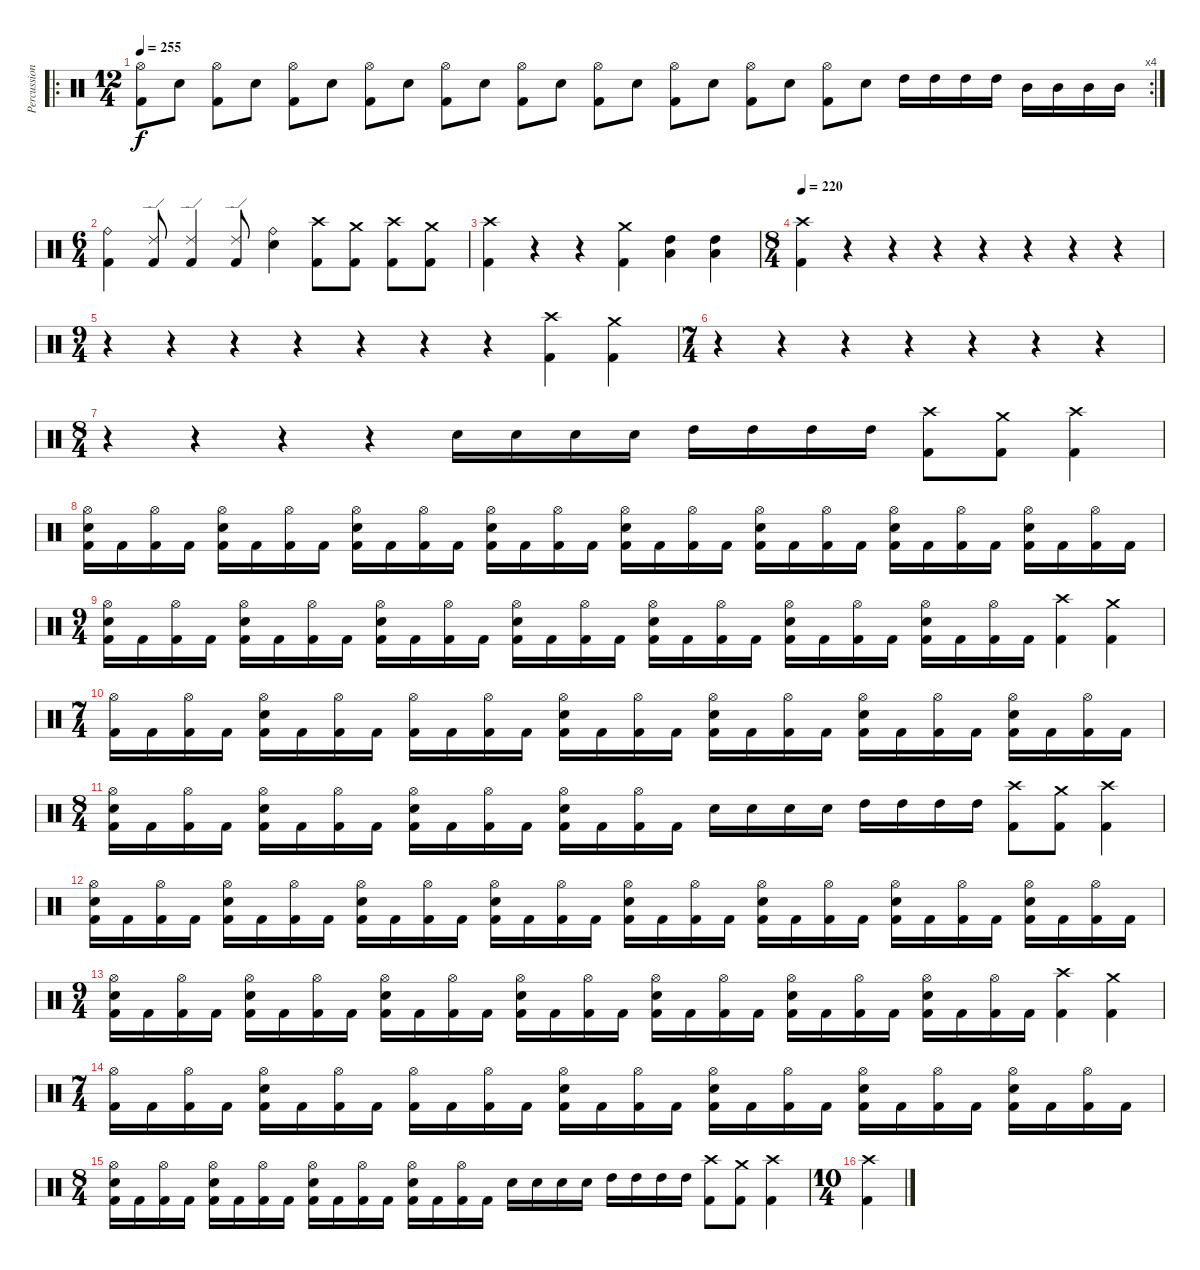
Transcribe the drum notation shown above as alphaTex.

\track ("Percussion" "Percussion") {mute instrument percussion}
\staff {score}
\articulation defaults
\ro
\rc 4
\ts (12 4)
\tempo 255
\clef neutral
\ks c
("Kick (hit) 2" "Hi-Hat (open)").8{dy f} "Electric Snare (hit)".8 ("Kick (hit) 2" "Hi-Hat (open)").8 "Electric Snare (hit)".8 ("Kick (hit) 2" "Hi-Hat (open)").8 "Electric Snare (hit)".8 ("Kick (hit) 2" "Hi-Hat (open)").8 "Electric Snare (hit)".8 ("Kick (hit) 2" "Hi-Hat (open)").8 "Electric Snare (hit)".8 ("Kick (hit) 2" "Hi-Hat (open)").8 "Electric Snare (hit)".8 ("Kick (hit) 2" "Hi-Hat (open)").8 "Electric Snare (hit)".8 ("Kick (hit) 2" "Hi-Hat (open)").8 "Electric Snare (hit)".8 ("Kick (hit) 2" "Hi-Hat (open)").8 "Electric Snare (hit)".8 ("Kick (hit) 2" "Hi-Hat (open)").8 "Electric Snare (hit)".8 "High Tom (hit)".16 "High Tom (hit)".16 "High Tom (hit)".16 "High Tom (hit)".16 "Mid Tom (hit)".16 "Mid Tom (hit)".16 "Mid Tom (hit)".16 "Mid Tom (hit)".16 |
\ts (6 4)
("Kick (hit) 2" "Ride (bell)").4 ("Kick (hit) 2" "Ride (edge) 2").8 ("Kick (hit) 2" "Ride (edge) 2").4 ("Kick (hit) 2" "Ride (edge) 2").8 ("Electric Snare (hit)" "Ride (bell)").4 ("Kick (hit) 2" "Crash high (hit)").8 ("Kick (hit) 2" "Crash medium (hit)").8 ("Kick (hit) 2" "Crash high (hit)").8 ("Kick (hit) 2" "Crash medium (hit)").8 |
("Kick (hit) 2" "Crash high (hit)").4 r.4 r.4 ("Kick (hit) 2" "Crash medium (hit)").4 ("Low Tom (hit)" "High Tom (hit)").4 ("Low Tom (hit)" "High Tom (hit)").4 |
\ts (8 4)
\tempo 220
("Kick (hit) 2" "Crash high (hit)").4 r.4 r.4 r.4 r.4 r.4 r.4 r.4 |
\ts (9 4)
r.4 r.4 r.4 r.4 r.4 r.4 r.4 ("Kick (hit) 2" "Crash high (hit)").4 ("Kick (hit) 2" "Crash medium (hit)").4 |
\ts (7 4)
r.4 r.4 r.4 r.4 r.4 r.4 r.4 |
\ts (8 4)
r.4 r.4 r.4 r.4 "Electric Snare (hit)".16 "Electric Snare (hit)".16 "Electric Snare (hit)".16 "Electric Snare (hit)".16 "High Tom (hit)".16 "High Tom (hit)".16 "High Tom (hit)".16 "High Tom (hit)".16 ("Kick (hit) 2" "Crash high (hit)").8 ("Kick (hit) 2" "Crash medium (hit)").8 ("Kick (hit) 2" "Crash high (hit)").4 |
("Kick (hit) 2" "Electric Snare (hit)" "Hi-Hat (open)").16 "Kick (hit) 2".16 ("Kick (hit) 2" "Hi-Hat (open)").16 "Kick (hit) 2".16 ("Kick (hit) 2" "Electric Snare (hit)" "Hi-Hat (open)").16 "Kick (hit) 2".16 ("Kick (hit) 2" "Hi-Hat (open)").16 "Kick (hit) 2".16 ("Kick (hit) 2" "Electric Snare (hit)" "Hi-Hat (open)").16 "Kick (hit) 2".16 ("Kick (hit) 2" "Hi-Hat (open)").16 "Kick (hit) 2".16 ("Kick (hit) 2" "Electric Snare (hit)" "Hi-Hat (open)").16 "Kick (hit) 2".16 ("Kick (hit) 2" "Hi-Hat (open)").16 "Kick (hit) 2".16 ("Kick (hit) 2" "Electric Snare (hit)" "Hi-Hat (open)").16 "Kick (hit) 2".16 ("Kick (hit) 2" "Hi-Hat (open)").16 "Kick (hit) 2".16 ("Kick (hit) 2" "Electric Snare (hit)" "Hi-Hat (open)").16 "Kick (hit) 2".16 ("Kick (hit) 2" "Hi-Hat (open)").16 "Kick (hit) 2".16 ("Kick (hit) 2" "Electric Snare (hit)" "Hi-Hat (open)").16 "Kick (hit) 2".16 ("Kick (hit) 2" "Hi-Hat (open)").16 "Kick (hit) 2".16 ("Kick (hit) 2" "Electric Snare (hit)" "Hi-Hat (open)").16 "Kick (hit) 2".16 ("Kick (hit) 2" "Hi-Hat (open)").16 "Kick (hit) 2".16 |
\ts (9 4)
("Kick (hit) 2" "Electric Snare (hit)" "Hi-Hat (open)").16 "Kick (hit) 2".16 ("Kick (hit) 2" "Hi-Hat (open)").16 "Kick (hit) 2".16 ("Kick (hit) 2" "Electric Snare (hit)" "Hi-Hat (open)").16 "Kick (hit) 2".16 ("Kick (hit) 2" "Hi-Hat (open)").16 "Kick (hit) 2".16 ("Kick (hit) 2" "Electric Snare (hit)" "Hi-Hat (open)").16 "Kick (hit) 2".16 ("Kick (hit) 2" "Hi-Hat (open)").16 "Kick (hit) 2".16 ("Kick (hit) 2" "Electric Snare (hit)" "Hi-Hat (open)").16 "Kick (hit) 2".16 ("Kick (hit) 2" "Hi-Hat (open)").16 "Kick (hit) 2".16 ("Kick (hit) 2" "Electric Snare (hit)" "Hi-Hat (open)").16 "Kick (hit) 2".16 ("Kick (hit) 2" "Hi-Hat (open)").16 "Kick (hit) 2".16 ("Kick (hit) 2" "Electric Snare (hit)" "Hi-Hat (open)").16 "Kick (hit) 2".16 ("Kick (hit) 2" "Hi-Hat (open)").16 "Kick (hit) 2".16 ("Kick (hit) 2" "Electric Snare (hit)" "Hi-Hat (open)").16 "Kick (hit) 2".16 ("Kick (hit) 2" "Hi-Hat (open)").16 "Kick (hit) 2".16 ("Kick (hit) 2" "Crash high (hit)").4 ("Kick (hit) 2" "Crash medium (hit)").4 |
\ts (7 4)
("Kick (hit) 2" "Hi-Hat (open)").16 "Kick (hit) 2".16 ("Kick (hit) 2" "Hi-Hat (open)").16 "Kick (hit) 2".16 ("Kick (hit) 2" "Electric Snare (hit)" "Hi-Hat (open)").16 "Kick (hit) 2".16 ("Kick (hit) 2" "Hi-Hat (open)").16 "Kick (hit) 2".16 ("Kick (hit) 2" "Hi-Hat (open)").16 "Kick (hit) 2".16 ("Kick (hit) 2" "Hi-Hat (open)").16 "Kick (hit) 2".16 ("Kick (hit) 2" "Electric Snare (hit)" "Hi-Hat (open)").16 "Kick (hit) 2".16 ("Kick (hit) 2" "Hi-Hat (open)").16 "Kick (hit) 2".16 ("Kick (hit) 2" "Electric Snare (hit)" "Hi-Hat (open)").16 "Kick (hit) 2".16 ("Kick (hit) 2" "Hi-Hat (open)").16 "Kick (hit) 2".16 ("Kick (hit) 2" "Electric Snare (hit)" "Hi-Hat (open)").16 "Kick (hit) 2".16 ("Kick (hit) 2" "Hi-Hat (open)").16 "Kick (hit) 2".16 ("Kick (hit) 2" "Electric Snare (hit)" "Hi-Hat (open)").16 "Kick (hit) 2".16 ("Kick (hit) 2" "Hi-Hat (open)").16 "Kick (hit) 2".16 |
\ts (8 4)
("Kick (hit) 2" "Electric Snare (hit)" "Hi-Hat (open)").16 "Kick (hit) 2".16 ("Kick (hit) 2" "Hi-Hat (open)").16 "Kick (hit) 2".16 ("Kick (hit) 2" "Electric Snare (hit)" "Hi-Hat (open)").16 "Kick (hit) 2".16 ("Kick (hit) 2" "Hi-Hat (open)").16 "Kick (hit) 2".16 ("Kick (hit) 2" "Electric Snare (hit)" "Hi-Hat (open)").16 "Kick (hit) 2".16 ("Kick (hit) 2" "Hi-Hat (open)").16 "Kick (hit) 2".16 ("Kick (hit) 2" "Electric Snare (hit)" "Hi-Hat (open)").16 "Kick (hit) 2".16 ("Kick (hit) 2" "Hi-Hat (open)").16 "Kick (hit) 2".16 "Electric Snare (hit)".16 "Electric Snare (hit)".16 "Electric Snare (hit)".16 "Electric Snare (hit)".16 "High Tom (hit)".16 "High Tom (hit)".16 "High Tom (hit)".16 "High Tom (hit)".16 ("Kick (hit) 2" "Crash high (hit)").8 ("Kick (hit) 2" "Crash medium (hit)").8 ("Kick (hit) 2" "Crash high (hit)").4 |
("Kick (hit) 2" "Electric Snare (hit)" "Hi-Hat (open)").16 "Kick (hit) 2".16 ("Kick (hit) 2" "Hi-Hat (open)").16 "Kick (hit) 2".16 ("Kick (hit) 2" "Electric Snare (hit)" "Hi-Hat (open)").16 "Kick (hit) 2".16 ("Kick (hit) 2" "Hi-Hat (open)").16 "Kick (hit) 2".16 ("Kick (hit) 2" "Electric Snare (hit)" "Hi-Hat (open)").16 "Kick (hit) 2".16 ("Kick (hit) 2" "Hi-Hat (open)").16 "Kick (hit) 2".16 ("Kick (hit) 2" "Electric Snare (hit)" "Hi-Hat (open)").16 "Kick (hit) 2".16 ("Kick (hit) 2" "Hi-Hat (open)").16 "Kick (hit) 2".16 ("Kick (hit) 2" "Electric Snare (hit)" "Hi-Hat (open)").16 "Kick (hit) 2".16 ("Kick (hit) 2" "Hi-Hat (open)").16 "Kick (hit) 2".16 ("Kick (hit) 2" "Electric Snare (hit)" "Hi-Hat (open)").16 "Kick (hit) 2".16 ("Kick (hit) 2" "Hi-Hat (open)").16 "Kick (hit) 2".16 ("Kick (hit) 2" "Electric Snare (hit)" "Hi-Hat (open)").16 "Kick (hit) 2".16 ("Kick (hit) 2" "Hi-Hat (open)").16 "Kick (hit) 2".16 ("Kick (hit) 2" "Electric Snare (hit)" "Hi-Hat (open)").16 "Kick (hit) 2".16 ("Kick (hit) 2" "Hi-Hat (open)").16 "Kick (hit) 2".16 |
\ts (9 4)
("Kick (hit) 2" "Electric Snare (hit)" "Hi-Hat (open)").16 "Kick (hit) 2".16 ("Kick (hit) 2" "Hi-Hat (open)").16 "Kick (hit) 2".16 ("Kick (hit) 2" "Electric Snare (hit)" "Hi-Hat (open)").16 "Kick (hit) 2".16 ("Kick (hit) 2" "Hi-Hat (open)").16 "Kick (hit) 2".16 ("Kick (hit) 2" "Electric Snare (hit)" "Hi-Hat (open)").16 "Kick (hit) 2".16 ("Kick (hit) 2" "Hi-Hat (open)").16 "Kick (hit) 2".16 ("Kick (hit) 2" "Electric Snare (hit)" "Hi-Hat (open)").16 "Kick (hit) 2".16 ("Kick (hit) 2" "Hi-Hat (open)").16 "Kick (hit) 2".16 ("Kick (hit) 2" "Electric Snare (hit)" "Hi-Hat (open)").16 "Kick (hit) 2".16 ("Kick (hit) 2" "Hi-Hat (open)").16 "Kick (hit) 2".16 ("Kick (hit) 2" "Electric Snare (hit)" "Hi-Hat (open)").16 "Kick (hit) 2".16 ("Kick (hit) 2" "Hi-Hat (open)").16 "Kick (hit) 2".16 ("Kick (hit) 2" "Electric Snare (hit)" "Hi-Hat (open)").16 "Kick (hit) 2".16 ("Kick (hit) 2" "Hi-Hat (open)").16 "Kick (hit) 2".16 ("Kick (hit) 2" "Crash high (hit)").4 ("Kick (hit) 2" "Crash medium (hit)").4 |
\ts (7 4)
("Kick (hit) 2" "Hi-Hat (open)").16 "Kick (hit) 2".16 ("Kick (hit) 2" "Hi-Hat (open)").16 "Kick (hit) 2".16 ("Kick (hit) 2" "Electric Snare (hit)" "Hi-Hat (open)").16 "Kick (hit) 2".16 ("Kick (hit) 2" "Hi-Hat (open)").16 "Kick (hit) 2".16 ("Kick (hit) 2" "Hi-Hat (open)").16 "Kick (hit) 2".16 ("Kick (hit) 2" "Hi-Hat (open)").16 "Kick (hit) 2".16 ("Kick (hit) 2" "Electric Snare (hit)" "Hi-Hat (open)").16 "Kick (hit) 2".16 ("Kick (hit) 2" "Hi-Hat (open)").16 "Kick (hit) 2".16 ("Kick (hit) 2" "Electric Snare (hit)" "Hi-Hat (open)").16 "Kick (hit) 2".16 ("Kick (hit) 2" "Hi-Hat (open)").16 "Kick (hit) 2".16 ("Kick (hit) 2" "Electric Snare (hit)" "Hi-Hat (open)").16 "Kick (hit) 2".16 ("Kick (hit) 2" "Hi-Hat (open)").16 "Kick (hit) 2".16 ("Kick (hit) 2" "Electric Snare (hit)" "Hi-Hat (open)").16 "Kick (hit) 2".16 ("Kick (hit) 2" "Hi-Hat (open)").16 "Kick (hit) 2".16 |
\ts (8 4)
("Kick (hit) 2" "Electric Snare (hit)" "Hi-Hat (open)").16 "Kick (hit) 2".16 ("Kick (hit) 2" "Hi-Hat (open)").16 "Kick (hit) 2".16 ("Kick (hit) 2" "Electric Snare (hit)" "Hi-Hat (open)").16 "Kick (hit) 2".16 ("Kick (hit) 2" "Hi-Hat (open)").16 "Kick (hit) 2".16 ("Kick (hit) 2" "Electric Snare (hit)" "Hi-Hat (open)").16 "Kick (hit) 2".16 ("Kick (hit) 2" "Hi-Hat (open)").16 "Kick (hit) 2".16 ("Kick (hit) 2" "Electric Snare (hit)" "Hi-Hat (open)").16 "Kick (hit) 2".16 ("Kick (hit) 2" "Hi-Hat (open)").16 "Kick (hit) 2".16 "Electric Snare (hit)".16 "Electric Snare (hit)".16 "Electric Snare (hit)".16 "Electric Snare (hit)".16 "High Tom (hit)".16 "High Tom (hit)".16 "High Tom (hit)".16 "High Tom (hit)".16 ("Kick (hit) 2" "Crash high (hit)").8 ("Kick (hit) 2" "Crash medium (hit)").8 ("Kick (hit) 2" "Crash high (hit)").4 |
\ts (10 4)
("Kick (hit) 2" "Crash high (hit)").4
